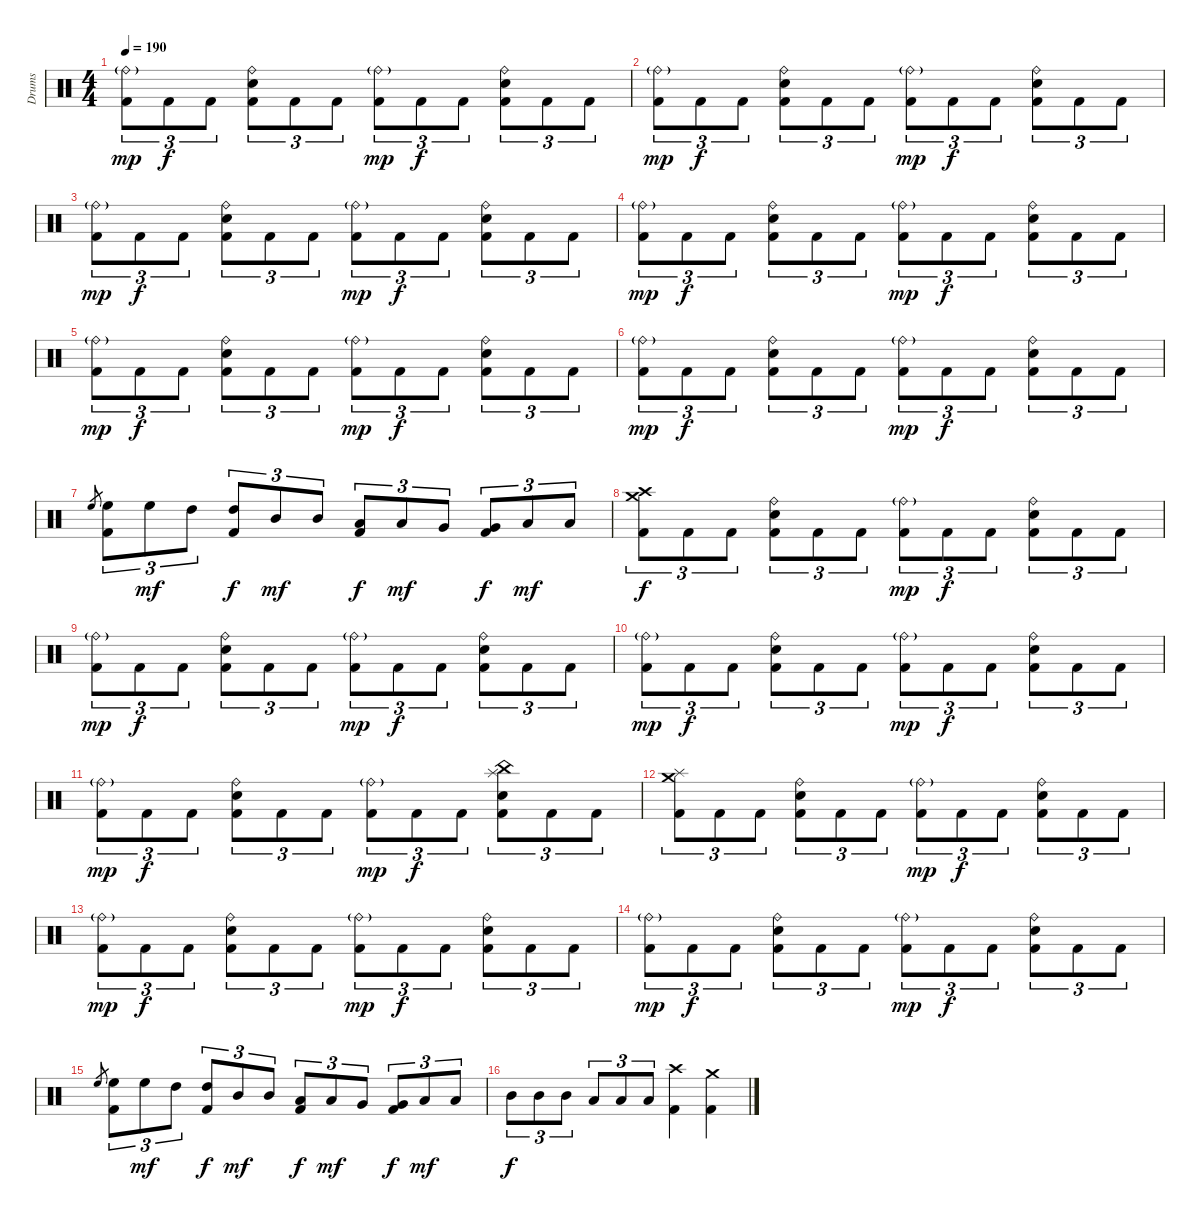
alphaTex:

\track ("Drums" "Drums") {instrument percussion}
\staff {score}
\articulation defaults
\ts (4 4)
\tempo 190
\clef neutral
\ks c
("Ride (bell)"{g} "Kick (hit) 2").8{tu (3 2) dy mp} "Kick (hit) 2".8{tu (3 2) dy f} "Kick (hit) 2".8{tu (3 2)} ("Ride (bell)" "Electric Snare (hit)" "Kick (hit) 2").8{tu (3 2)} "Kick (hit) 2".8{tu (3 2)} "Kick (hit) 2".8{tu (3 2)} ("Ride (bell)"{g} "Kick (hit) 2").8{tu (3 2) dy mp} "Kick (hit) 2".8{tu (3 2) dy f} "Kick (hit) 2".8{tu (3 2)} ("Ride (bell)" "Electric Snare (hit)" "Kick (hit) 2").8{tu (3 2)} "Kick (hit) 2".8{tu (3 2)} "Kick (hit) 2".8{tu (3 2)} |
("Ride (bell)"{g} "Kick (hit) 2").8{tu (3 2) dy mp} "Kick (hit) 2".8{tu (3 2) dy f} "Kick (hit) 2".8{tu (3 2)} ("Ride (bell)" "Electric Snare (hit)" "Kick (hit) 2").8{tu (3 2)} "Kick (hit) 2".8{tu (3 2)} "Kick (hit) 2".8{tu (3 2)} ("Ride (bell)"{g} "Kick (hit) 2").8{tu (3 2) dy mp} "Kick (hit) 2".8{tu (3 2) dy f} "Kick (hit) 2".8{tu (3 2)} ("Ride (bell)" "Electric Snare (hit)" "Kick (hit) 2").8{tu (3 2)} "Kick (hit) 2".8{tu (3 2)} "Kick (hit) 2".8{tu (3 2)} |
("Ride (bell)"{g} "Kick (hit) 2").8{tu (3 2) dy mp} "Kick (hit) 2".8{tu (3 2) dy f} "Kick (hit) 2".8{tu (3 2)} ("Ride (bell)" "Electric Snare (hit)" "Kick (hit) 2").8{tu (3 2)} "Kick (hit) 2".8{tu (3 2)} "Kick (hit) 2".8{tu (3 2)} ("Ride (bell)"{g} "Kick (hit) 2").8{tu (3 2) dy mp} "Kick (hit) 2".8{tu (3 2) dy f} "Kick (hit) 2".8{tu (3 2)} ("Ride (bell)" "Electric Snare (hit)" "Kick (hit) 2").8{tu (3 2)} "Kick (hit) 2".8{tu (3 2)} "Kick (hit) 2".8{tu (3 2)} |
("Ride (bell)"{g} "Kick (hit) 2").8{tu (3 2) dy mp} "Kick (hit) 2".8{tu (3 2) dy f} "Kick (hit) 2".8{tu (3 2)} ("Ride (bell)" "Electric Snare (hit)" "Kick (hit) 2").8{tu (3 2)} "Kick (hit) 2".8{tu (3 2)} "Kick (hit) 2".8{tu (3 2)} ("Ride (bell)"{g} "Kick (hit) 2").8{tu (3 2) dy mp} "Kick (hit) 2".8{tu (3 2) dy f} "Kick (hit) 2".8{tu (3 2)} ("Ride (bell)" "Electric Snare (hit)" "Kick (hit) 2").8{tu (3 2)} "Kick (hit) 2".8{tu (3 2)} "Kick (hit) 2".8{tu (3 2)} |
("Ride (bell)"{g} "Kick (hit) 2").8{tu (3 2) dy mp} "Kick (hit) 2".8{tu (3 2) dy f} "Kick (hit) 2".8{tu (3 2)} ("Ride (bell)" "Electric Snare (hit)" "Kick (hit) 2").8{tu (3 2)} "Kick (hit) 2".8{tu (3 2)} "Kick (hit) 2".8{tu (3 2)} ("Ride (bell)"{g} "Kick (hit) 2").8{tu (3 2) dy mp} "Kick (hit) 2".8{tu (3 2) dy f} "Kick (hit) 2".8{tu (3 2)} ("Ride (bell)" "Electric Snare (hit)" "Kick (hit) 2").8{tu (3 2)} "Kick (hit) 2".8{tu (3 2)} "Kick (hit) 2".8{tu (3 2)} |
("Ride (bell)"{g} "Kick (hit) 2").8{tu (3 2) dy mp} "Kick (hit) 2".8{tu (3 2) dy f} "Kick (hit) 2".8{tu (3 2)} ("Ride (bell)" "Electric Snare (hit)" "Kick (hit) 2").8{tu (3 2)} "Kick (hit) 2".8{tu (3 2)} "Kick (hit) 2".8{tu (3 2)} ("Ride (bell)"{g} "Kick (hit) 2").8{tu (3 2) dy mp} "Kick (hit) 2".8{tu (3 2) dy f} "Kick (hit) 2".8{tu (3 2)} ("Ride (bell)" "Electric Snare (hit)" "Kick (hit) 2").8{tu (3 2)} "Kick (hit) 2".8{tu (3 2)} "Kick (hit) 2".8{tu (3 2)} |
"High Floor Tom (hit)".8{gr} ("High Floor Tom (hit)" "Kick (hit) 2").8{tu (3 2)} "High Floor Tom (hit)".8{tu (3 2) dy mf} "High Tom (hit)".8{tu (3 2)} ("High Tom (hit)" "Kick (hit) 2").8{tu (3 2) dy f} "Mid Tom (hit)".8{tu (3 2) dy mf} "Mid Tom (hit)".8{tu (3 2)} ("Low Tom (hit)" "Kick (hit) 2").8{tu (3 2) dy f} "Low Tom (hit)".8{tu (3 2) dy mf} "Very Low Tom (hit)".8{tu (3 2)} ("Very Low Tom (hit)" "Kick (hit) 2").8{tu (3 2) dy f} "Low Floor Tom (hit)".8{tu (3 2) dy mf} "Low Floor Tom (hit)".8{tu (3 2)} |
("Crash high (hit)" "Crash medium (hit)" "Kick (hit) 2").8{tu (3 2) dy f} "Kick (hit) 2".8{tu (3 2)} "Kick (hit) 2".8{tu (3 2)} ("Ride (bell)" "Electric Snare (hit)" "Kick (hit) 2").8{tu (3 2)} "Kick (hit) 2".8{tu (3 2)} "Kick (hit) 2".8{tu (3 2)} ("Ride (bell)"{g} "Kick (hit) 2").8{tu (3 2) dy mp} "Kick (hit) 2".8{tu (3 2) dy f} "Kick (hit) 2".8{tu (3 2)} ("Ride (bell)" "Electric Snare (hit)" "Kick (hit) 2").8{tu (3 2)} "Kick (hit) 2".8{tu (3 2)} "Kick (hit) 2".8{tu (3 2)} |
("Ride (bell)"{g} "Kick (hit) 2").8{tu (3 2) dy mp} "Kick (hit) 2".8{tu (3 2) dy f} "Kick (hit) 2".8{tu (3 2)} ("Ride (bell)" "Electric Snare (hit)" "Kick (hit) 2").8{tu (3 2)} "Kick (hit) 2".8{tu (3 2)} "Kick (hit) 2".8{tu (3 2)} ("Ride (bell)"{g} "Kick (hit) 2").8{tu (3 2) dy mp} "Kick (hit) 2".8{tu (3 2) dy f} "Kick (hit) 2".8{tu (3 2)} ("Ride (bell)" "Electric Snare (hit)" "Kick (hit) 2").8{tu (3 2)} "Kick (hit) 2".8{tu (3 2)} "Kick (hit) 2".8{tu (3 2)} |
("Ride (bell)"{g} "Kick (hit) 2").8{tu (3 2) dy mp} "Kick (hit) 2".8{tu (3 2) dy f} "Kick (hit) 2".8{tu (3 2)} ("Ride (bell)" "Electric Snare (hit)" "Kick (hit) 2").8{tu (3 2)} "Kick (hit) 2".8{tu (3 2)} "Kick (hit) 2".8{tu (3 2)} ("Ride (bell)"{g} "Kick (hit) 2").8{tu (3 2) dy mp} "Kick (hit) 2".8{tu (3 2) dy f} "Kick (hit) 2".8{tu (3 2)} ("Ride (bell)" "Electric Snare (hit)" "Kick (hit) 2").8{tu (3 2)} "Kick (hit) 2".8{tu (3 2)} "Kick (hit) 2".8{tu (3 2)} |
("Ride (bell)"{g} "Kick (hit) 2").8{tu (3 2) dy mp} "Kick (hit) 2".8{tu (3 2) dy f} "Kick (hit) 2".8{tu (3 2)} ("Ride (bell)" "Electric Snare (hit)" "Kick (hit) 2").8{tu (3 2)} "Kick (hit) 2".8{tu (3 2)} "Kick (hit) 2".8{tu (3 2)} ("Ride (bell)"{g} "Kick (hit) 2").8{tu (3 2) dy mp} "Kick (hit) 2".8{tu (3 2) dy f} "Kick (hit) 2".8{tu (3 2)} ("Splash (hit)" "China (hit)" "Electric Snare (hit)" "Kick (hit) 2").8{tu (3 2)} "Kick (hit) 2".8{tu (3 2)} "Kick (hit) 2".8{tu (3 2)} |
("Crash medium (hit)" "Splash (hit)" "Kick (hit) 2").8{tu (3 2)} "Kick (hit) 2".8{tu (3 2)} "Kick (hit) 2".8{tu (3 2)} ("Ride (bell)" "Electric Snare (hit)" "Kick (hit) 2").8{tu (3 2)} "Kick (hit) 2".8{tu (3 2)} "Kick (hit) 2".8{tu (3 2)} ("Ride (bell)"{g} "Kick (hit) 2").8{tu (3 2) dy mp} "Kick (hit) 2".8{tu (3 2) dy f} "Kick (hit) 2".8{tu (3 2)} ("Ride (bell)" "Electric Snare (hit)" "Kick (hit) 2").8{tu (3 2)} "Kick (hit) 2".8{tu (3 2)} "Kick (hit) 2".8{tu (3 2)} |
("Ride (bell)"{g} "Kick (hit) 2").8{tu (3 2) dy mp} "Kick (hit) 2".8{tu (3 2) dy f} "Kick (hit) 2".8{tu (3 2)} ("Ride (bell)" "Electric Snare (hit)" "Kick (hit) 2").8{tu (3 2)} "Kick (hit) 2".8{tu (3 2)} "Kick (hit) 2".8{tu (3 2)} ("Ride (bell)"{g} "Kick (hit) 2").8{tu (3 2) dy mp} "Kick (hit) 2".8{tu (3 2) dy f} "Kick (hit) 2".8{tu (3 2)} ("Ride (bell)" "Electric Snare (hit)" "Kick (hit) 2").8{tu (3 2)} "Kick (hit) 2".8{tu (3 2)} "Kick (hit) 2".8{tu (3 2)} |
("Ride (bell)"{g} "Kick (hit) 2").8{tu (3 2) dy mp} "Kick (hit) 2".8{tu (3 2) dy f} "Kick (hit) 2".8{tu (3 2)} ("Ride (bell)" "Electric Snare (hit)" "Kick (hit) 2").8{tu (3 2)} "Kick (hit) 2".8{tu (3 2)} "Kick (hit) 2".8{tu (3 2)} ("Ride (bell)"{g} "Kick (hit) 2").8{tu (3 2) dy mp} "Kick (hit) 2".8{tu (3 2) dy f} "Kick (hit) 2".8{tu (3 2)} ("Ride (bell)" "Electric Snare (hit)" "Kick (hit) 2").8{tu (3 2)} "Kick (hit) 2".8{tu (3 2)} "Kick (hit) 2".8{tu (3 2)} |
"High Floor Tom (hit)".8{gr} ("High Floor Tom (hit)" "Kick (hit) 2").8{tu (3 2)} "High Floor Tom (hit)".8{tu (3 2) dy mf} "High Tom (hit)".8{tu (3 2)} ("High Tom (hit)" "Kick (hit) 2").8{tu (3 2) dy f} "Mid Tom (hit)".8{tu (3 2) dy mf} "Mid Tom (hit)".8{tu (3 2)} ("Low Tom (hit)" "Kick (hit) 2").8{tu (3 2) dy f} "Low Tom (hit)".8{tu (3 2) dy mf} "Very Low Tom (hit)".8{tu (3 2)} ("Very Low Tom (hit)" "Kick (hit) 2").8{tu (3 2) dy f} "Low Floor Tom (hit)".8{tu (3 2) dy mf} "Low Floor Tom (hit)".8{tu (3 2)} |
"Mid Tom (hit)".8{tu (3 2) dy f} "Mid Tom (hit)".8{tu (3 2)} "Mid Tom (hit)".8{tu (3 2)} "Low Tom (hit)".8{tu (3 2)} "Low Tom (hit)".8{tu (3 2)} "Low Tom (hit)".8{tu (3 2)} ("Crash high (hit)" "Kick (hit) 2").4 ("Crash medium (hit)" "Kick (hit) 2").4
